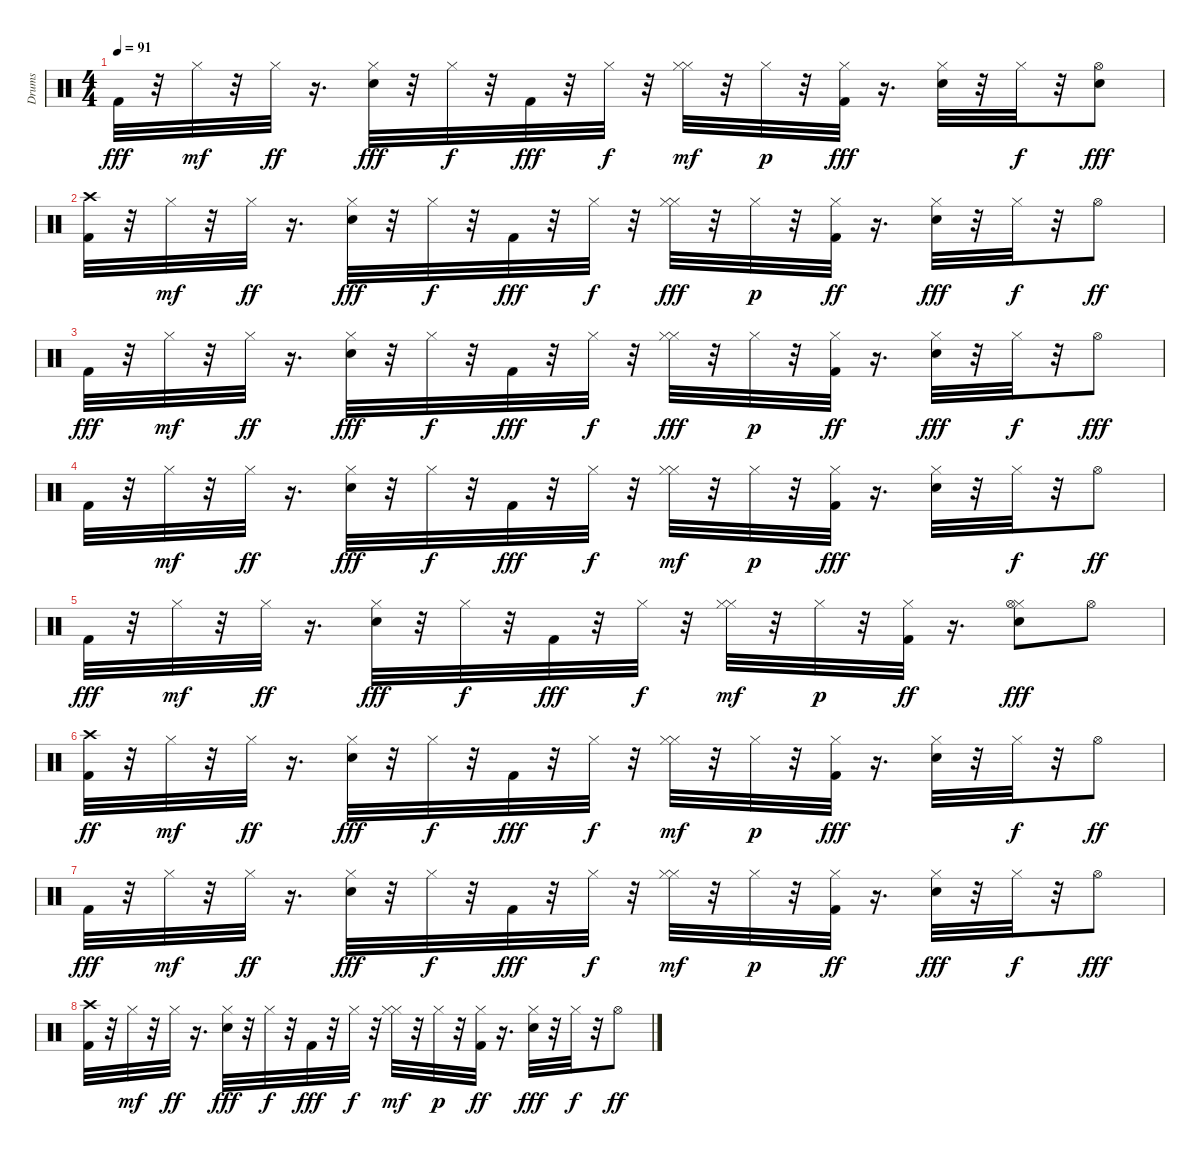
\track ("Drums" "Drums") {instrument percussion}
\staff {score}
\articulation defaults
\ts (4 4)
\tempo 91
\clef neutral
\ks c "Kick (hit) 2".32{dy fff}
r.32 "Hi-Hat (closed)".32{dy mf} r.32 "Hi-Hat (closed)".32{dy ff} r.16{d} ("Hi-Hat (closed)" "Snare (hit) 2").32{dy fff} r.32 "Hi-Hat (closed)".32{dy f} r.32 "Kick (hit) 2".32{dy fff} r.32 "Hi-Hat (closed)".32{dy f} r.32 ("Hi-Hat (closed)" "Hi-Hat (closed)").32{dy mf} r.32 "Hi-Hat (closed)".32{dy p} r.32 ("Hi-Hat (closed)" "Kick (hit) 2").32{dy fff} r.16{d} ("Hi-Hat (closed)" "Snare (hit) 2").32 r.32 "Hi-Hat (closed)".32{dy f} r.32 ("Snare (hit) 2" "Hi-Hat (open)").8{dy fff} |
("Crash high (hit)" "Kick (hit) 2").32 r.32 "Hi-Hat (closed)".32{dy mf} r.32 "Hi-Hat (closed)".32{dy ff} r.16{d} ("Hi-Hat (closed)" "Snare (hit) 2").32{dy fff} r.32 "Hi-Hat (closed)".32{dy f} r.32 "Kick (hit) 2".32{dy fff} r.32 "Hi-Hat (closed)".32{dy f} r.32 ("Hi-Hat (closed)" "Hi-Hat (closed)").32{dy fff} r.32 "Hi-Hat (closed)".32{dy p} r.32 ("Kick (hit) 2" "Hi-Hat (closed)").32{dy ff} r.16{d} ("Snare (hit) 2" "Hi-Hat (closed)").32{dy fff} r.32 "Hi-Hat (closed)".32{dy f} r.32 "Hi-Hat (open)".8{dy ff} |
"Kick (hit) 2".32{dy fff} r.32 "Hi-Hat (closed)".32{dy mf} r.32 "Hi-Hat (closed)".32{dy ff} r.16{d} ("Hi-Hat (closed)" "Snare (hit) 2").32{dy fff} r.32 "Hi-Hat (closed)".32{dy f} r.32 "Kick (hit) 2".32{dy fff} r.32 "Hi-Hat (closed)".32{dy f} r.32 ("Hi-Hat (closed)" "Hi-Hat (closed)").32{dy fff} r.32 "Hi-Hat (closed)".32{dy p} r.32 ("Kick (hit) 2" "Hi-Hat (closed)").32{dy ff} r.16{d} ("Snare (hit) 2" "Hi-Hat (closed)").32{dy fff} r.32 "Hi-Hat (closed)".32{dy f} r.32 "Hi-Hat (open)".8{dy fff} |
"Kick (hit) 2".32 r.32 "Hi-Hat (closed)".32{dy mf} r.32 "Hi-Hat (closed)".32{dy ff} r.16{d} ("Hi-Hat (closed)" "Snare (hit) 2").32{dy fff} r.32 "Hi-Hat (closed)".32{dy f} r.32 "Kick (hit) 2".32{dy fff} r.32 "Hi-Hat (closed)".32{dy f} r.32 ("Hi-Hat (closed)" "Hi-Hat (closed)").32{dy mf} r.32 "Hi-Hat (closed)".32{dy p} r.32 ("Hi-Hat (closed)" "Kick (hit) 2").32{dy fff} r.16{d} ("Hi-Hat (closed)" "Snare (hit) 2").32 r.32 "Hi-Hat (closed)".32{dy f} r.32 "Hi-Hat (open)".8{dy ff} |
"Kick (hit) 2".32{dy fff} r.32 "Hi-Hat (closed)".32{dy mf} r.32 "Hi-Hat (closed)".32{dy ff} r.16{d} ("Snare (hit) 2" "Hi-Hat (closed)").32{dy fff} r.32 "Hi-Hat (closed)".32{dy f} r.32 "Kick (hit) 2".32{dy fff} r.32 "Hi-Hat (closed)".32{dy f} r.32 ("Hi-Hat (closed)" "Hi-Hat (closed)").32{dy mf} r.32 "Hi-Hat (closed)".32{dy p} r.32 ("Kick (hit) 2" "Hi-Hat (closed)").32{dy ff} r.16{d} ("Hi-Hat (closed)" "Hi-Hat (open)" "Snare (hit) 2").8{dy fff} "Hi-Hat (open)".8 |
("Kick (hit) 2" "Crash high (hit)").32{dy ff} r.32 "Hi-Hat (closed)".32{dy mf} r.32 "Hi-Hat (closed)".32{dy ff} r.16{d} ("Snare (hit) 2" "Hi-Hat (closed)").32{dy fff} r.32 "Hi-Hat (closed)".32{dy f} r.32 "Kick (hit) 2".32{dy fff} r.32 "Hi-Hat (closed)".32{dy f} r.32 ("Hi-Hat (closed)" "Hi-Hat (closed)").32{dy mf} r.32 "Hi-Hat (closed)".32{dy p} r.32 ("Hi-Hat (closed)" "Kick (hit) 2").32{dy fff} r.16{d} ("Hi-Hat (closed)" "Snare (hit) 2").32 r.32 "Hi-Hat (closed)".32{dy f} r.32 "Hi-Hat (open)".8{dy ff} |
"Kick (hit) 2".32{dy fff} r.32 "Hi-Hat (closed)".32{dy mf} r.32 "Hi-Hat (closed)".32{dy ff} r.16{d} ("Hi-Hat (closed)" "Snare (hit) 2").32{dy fff} r.32 "Hi-Hat (closed)".32{dy f} r.32 "Kick (hit) 2".32{dy fff} r.32 "Hi-Hat (closed)".32{dy f} r.32 ("Hi-Hat (closed)" "Hi-Hat (closed)").32{dy mf} r.32 "Hi-Hat (closed)".32{dy p} r.32 ("Kick (hit) 2" "Hi-Hat (closed)").32{dy ff} r.16{d} ("Snare (hit) 2" "Hi-Hat (closed)").32{dy fff} r.32 "Hi-Hat (closed)".32{dy f} r.32 "Hi-Hat (open)".8{dy fff} |
("Crash high (hit)" "Kick (hit) 2").32 r.32 "Hi-Hat (closed)".32{dy mf} r.32 "Hi-Hat (closed)".32{dy ff} r.16{d} ("Snare (hit) 2" "Hi-Hat (closed)").32{dy fff} r.32 "Hi-Hat (closed)".32{dy f} r.32 "Kick (hit) 2".32{dy fff} r.32 "Hi-Hat (closed)".32{dy f} r.32 ("Hi-Hat (closed)" "Hi-Hat (closed)").32{dy mf} r.32 "Hi-Hat (closed)".32{dy p} r.32 ("Kick (hit) 2" "Hi-Hat (closed)").32{dy ff} r.16{d} ("Snare (hit) 2" "Hi-Hat (closed)").32{dy fff} r.32 "Hi-Hat (closed)".32{dy f} r.32 "Hi-Hat (open)".8{dy ff}
